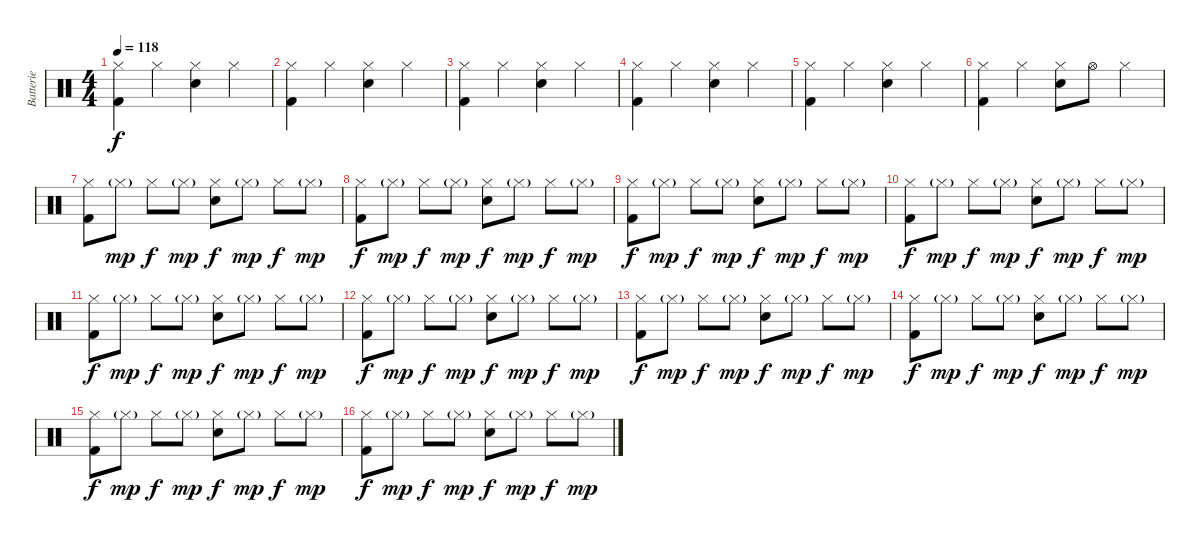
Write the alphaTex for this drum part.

\track ("Batterie" "Batterie") {instrument percussion}
\staff {score}
\articulation defaults
\ts (4 4)
\tempo 118
\clef neutral
\ks c
("Hi-Hat (closed)" "Kick (hit) 2").4{dy f} "Hi-Hat (closed)".4 ("Hi-Hat (closed)" "Electric Snare (hit)").4 "Hi-Hat (closed)".4 |
("Hi-Hat (closed)" "Kick (hit) 2").4 "Hi-Hat (closed)".4 ("Hi-Hat (closed)" "Electric Snare (hit)").4 "Hi-Hat (closed)".4 |
("Hi-Hat (closed)" "Kick (hit) 2").4 "Hi-Hat (closed)".4 ("Hi-Hat (closed)" "Electric Snare (hit)").4 "Hi-Hat (closed)".4 |
("Hi-Hat (closed)" "Kick (hit) 2").4 "Hi-Hat (closed)".4 ("Hi-Hat (closed)" "Electric Snare (hit)").4 "Hi-Hat (closed)".4 |
("Hi-Hat (closed)" "Kick (hit) 2").4 "Hi-Hat (closed)".4 ("Hi-Hat (closed)" "Electric Snare (hit)").4 "Hi-Hat (closed)".4 |
("Hi-Hat (closed)" "Kick (hit) 2").4 "Hi-Hat (closed)".4 ("Hi-Hat (closed)" "Electric Snare (hit)").8 "Hi-Hat (open)".8 "Hi-Hat (closed)".4 |
("Hi-Hat (closed)" "Kick (hit) 2").8 "Hi-Hat (closed)"{g}.8{dy mp} "Hi-Hat (closed)".8{dy f} "Hi-Hat (closed)"{g}.8{dy mp} ("Hi-Hat (closed)" "Electric Snare (hit)").8{dy f} "Hi-Hat (closed)"{g}.8{dy mp} "Hi-Hat (closed)".8{dy f} "Hi-Hat (closed)"{g}.8{dy mp} |
("Hi-Hat (closed)" "Kick (hit) 2").8{dy f} "Hi-Hat (closed)"{g}.8{dy mp} "Hi-Hat (closed)".8{dy f} "Hi-Hat (closed)"{g}.8{dy mp} ("Hi-Hat (closed)" "Electric Snare (hit)").8{dy f} "Hi-Hat (closed)"{g}.8{dy mp} "Hi-Hat (closed)".8{dy f} "Hi-Hat (closed)"{g}.8{dy mp} |
("Hi-Hat (closed)" "Kick (hit) 2").8{dy f} "Hi-Hat (closed)"{g}.8{dy mp} "Hi-Hat (closed)".8{dy f} "Hi-Hat (closed)"{g}.8{dy mp} ("Hi-Hat (closed)" "Electric Snare (hit)").8{dy f} "Hi-Hat (closed)"{g}.8{dy mp} "Hi-Hat (closed)".8{dy f} "Hi-Hat (closed)"{g}.8{dy mp} |
("Hi-Hat (closed)" "Kick (hit) 2").8{dy f} "Hi-Hat (closed)"{g}.8{dy mp} "Hi-Hat (closed)".8{dy f} "Hi-Hat (closed)"{g}.8{dy mp} ("Hi-Hat (closed)" "Electric Snare (hit)").8{dy f} "Hi-Hat (closed)"{g}.8{dy mp} "Hi-Hat (closed)".8{dy f} "Hi-Hat (closed)"{g}.8{dy mp} |
("Hi-Hat (closed)" "Kick (hit) 2").8{dy f} "Hi-Hat (closed)"{g}.8{dy mp} "Hi-Hat (closed)".8{dy f} "Hi-Hat (closed)"{g}.8{dy mp} ("Hi-Hat (closed)" "Electric Snare (hit)").8{dy f} "Hi-Hat (closed)"{g}.8{dy mp} "Hi-Hat (closed)".8{dy f} "Hi-Hat (closed)"{g}.8{dy mp} |
("Hi-Hat (closed)" "Kick (hit) 2").8{dy f} "Hi-Hat (closed)"{g}.8{dy mp} "Hi-Hat (closed)".8{dy f} "Hi-Hat (closed)"{g}.8{dy mp} ("Hi-Hat (closed)" "Electric Snare (hit)").8{dy f} "Hi-Hat (closed)"{g}.8{dy mp} "Hi-Hat (closed)".8{dy f} "Hi-Hat (closed)"{g}.8{dy mp} |
("Hi-Hat (closed)" "Kick (hit) 2").8{dy f} "Hi-Hat (closed)"{g}.8{dy mp} "Hi-Hat (closed)".8{dy f} "Hi-Hat (closed)"{g}.8{dy mp} ("Hi-Hat (closed)" "Electric Snare (hit)").8{dy f} "Hi-Hat (closed)"{g}.8{dy mp} "Hi-Hat (closed)".8{dy f} "Hi-Hat (closed)"{g}.8{dy mp} |
("Hi-Hat (closed)" "Kick (hit) 2").8{dy f} "Hi-Hat (closed)"{g}.8{dy mp} "Hi-Hat (closed)".8{dy f} "Hi-Hat (closed)"{g}.8{dy mp} ("Hi-Hat (closed)" "Electric Snare (hit)").8{dy f} "Hi-Hat (closed)"{g}.8{dy mp} "Hi-Hat (closed)".8{dy f} "Hi-Hat (closed)"{g}.8{dy mp} |
("Hi-Hat (closed)" "Kick (hit) 2").8{dy f} "Hi-Hat (closed)"{g}.8{dy mp} "Hi-Hat (closed)".8{dy f} "Hi-Hat (closed)"{g}.8{dy mp} ("Hi-Hat (closed)" "Electric Snare (hit)").8{dy f} "Hi-Hat (closed)"{g}.8{dy mp} "Hi-Hat (closed)".8{dy f} "Hi-Hat (closed)"{g}.8{dy mp} |
("Hi-Hat (closed)" "Kick (hit) 2").8{dy f} "Hi-Hat (closed)"{g}.8{dy mp} "Hi-Hat (closed)".8{dy f} "Hi-Hat (closed)"{g}.8{dy mp} ("Hi-Hat (closed)" "Electric Snare (hit)").8{dy f} "Hi-Hat (closed)"{g}.8{dy mp} "Hi-Hat (closed)".8{dy f} "Hi-Hat (closed)"{g}.8{dy mp}
